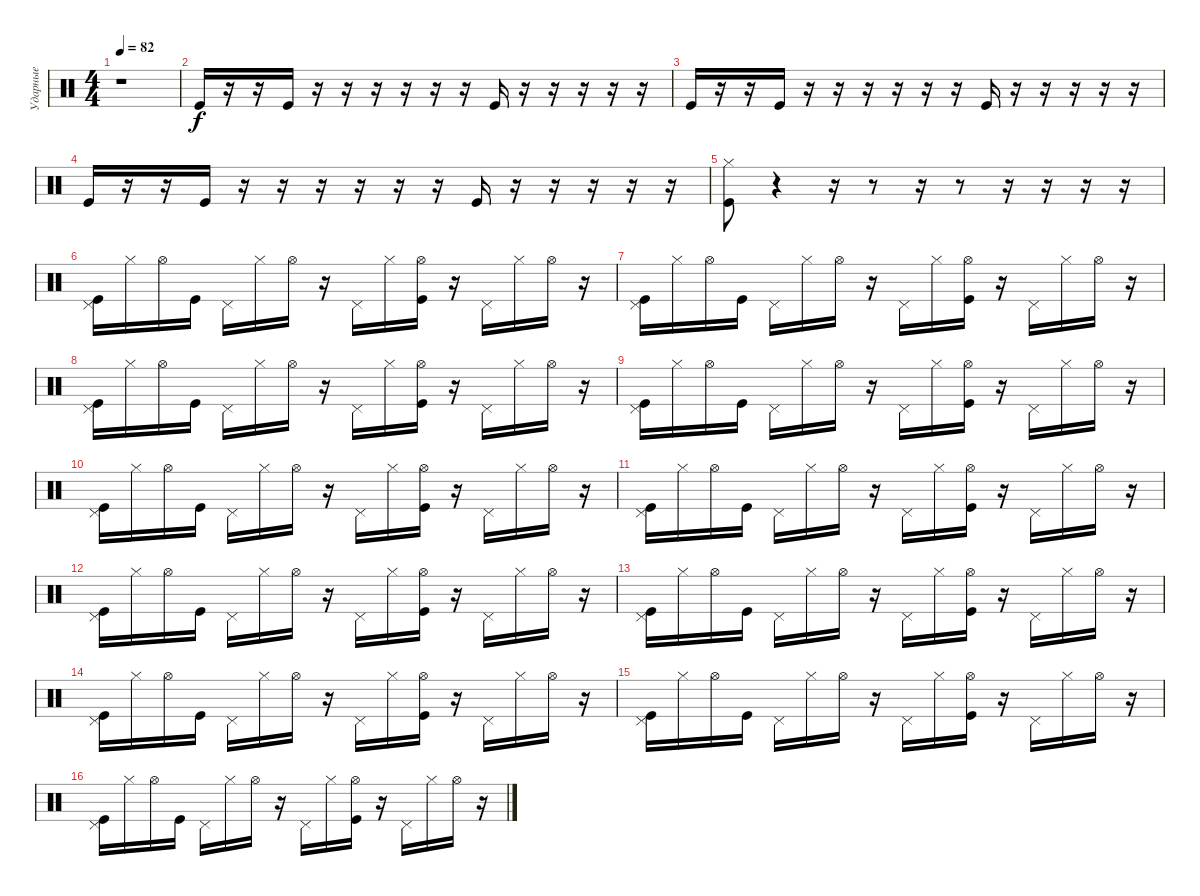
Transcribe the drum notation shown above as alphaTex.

\track ("Ударные" "Ударные") {instrument percussion}
\staff {score}
\articulation defaults
\ts (4 4)
\tempo 82
\clef neutral
\ks c
r.1{dy f} |
"Kick (hit)".16 r.16 r.16 "Kick (hit)".16 r.16 r.16 r.16 r.16 r.16 r.16 "Kick (hit)".16 r.16 r.16 r.16 r.16 r.16 |
"Kick (hit)".16 r.16 r.16 "Kick (hit)".16 r.16 r.16 r.16 r.16 r.16 r.16 "Kick (hit)".16 r.16 r.16 r.16 r.16 r.16 |
"Kick (hit)".16 r.16 r.16 "Kick (hit)".16 r.16 r.16 r.16 r.16 r.16 r.16 "Kick (hit)".16 r.16 r.16 r.16 r.16 r.16 |
("Hi-Hat (closed)" "Kick (hit)").8 r.4 r.16 r.8 r.16 r.8 r.16 r.16 r.16 r.16 |
("Kick (hit)" "Pedal Hi-Hat (hit)").16 "Hi-Hat (closed)".16 "Hi-Hat (open)".16 "Kick (hit)".16 "Pedal Hi-Hat (hit)".16 "Hi-Hat (closed)".16 "Hi-Hat (open)".16 r.16 "Pedal Hi-Hat (hit)".16 "Hi-Hat (closed)".16 ("Hi-Hat (open)" "Kick (hit)").16 r.16 "Pedal Hi-Hat (hit)".16 "Hi-Hat (closed)".16 "Hi-Hat (open)".16 r.16 |
("Kick (hit)" "Pedal Hi-Hat (hit)").16 "Hi-Hat (closed)".16 "Hi-Hat (open)".16 "Kick (hit)".16 "Pedal Hi-Hat (hit)".16 "Hi-Hat (closed)".16 "Hi-Hat (open)".16 r.16 "Pedal Hi-Hat (hit)".16 "Hi-Hat (closed)".16 ("Hi-Hat (open)" "Kick (hit)").16 r.16 "Pedal Hi-Hat (hit)".16 "Hi-Hat (closed)".16 "Hi-Hat (open)".16 r.16 |
("Kick (hit)" "Pedal Hi-Hat (hit)").16 "Hi-Hat (closed)".16 "Hi-Hat (open)".16 "Kick (hit)".16 "Pedal Hi-Hat (hit)".16 "Hi-Hat (closed)".16 "Hi-Hat (open)".16 r.16 "Pedal Hi-Hat (hit)".16 "Hi-Hat (closed)".16 ("Hi-Hat (open)" "Kick (hit)").16 r.16 "Pedal Hi-Hat (hit)".16 "Hi-Hat (closed)".16 "Hi-Hat (open)".16 r.16 |
("Kick (hit)" "Pedal Hi-Hat (hit)").16 "Hi-Hat (closed)".16 "Hi-Hat (open)".16 "Kick (hit)".16 "Pedal Hi-Hat (hit)".16 "Hi-Hat (closed)".16 "Hi-Hat (open)".16 r.16 "Pedal Hi-Hat (hit)".16 "Hi-Hat (closed)".16 ("Hi-Hat (open)" "Kick (hit)").16 r.16 "Pedal Hi-Hat (hit)".16 "Hi-Hat (closed)".16 "Hi-Hat (open)".16 r.16 |
("Kick (hit)" "Pedal Hi-Hat (hit)").16 "Hi-Hat (closed)".16 "Hi-Hat (open)".16 "Kick (hit)".16 "Pedal Hi-Hat (hit)".16 "Hi-Hat (closed)".16 "Hi-Hat (open)".16 r.16 "Pedal Hi-Hat (hit)".16 "Hi-Hat (closed)".16 ("Hi-Hat (open)" "Kick (hit)").16 r.16 "Pedal Hi-Hat (hit)".16 "Hi-Hat (closed)".16 "Hi-Hat (open)".16 r.16 |
("Kick (hit)" "Pedal Hi-Hat (hit)").16 "Hi-Hat (closed)".16 "Hi-Hat (open)".16 "Kick (hit)".16 "Pedal Hi-Hat (hit)".16 "Hi-Hat (closed)".16 "Hi-Hat (open)".16 r.16 "Pedal Hi-Hat (hit)".16 "Hi-Hat (closed)".16 ("Hi-Hat (open)" "Kick (hit)").16 r.16 "Pedal Hi-Hat (hit)".16 "Hi-Hat (closed)".16 "Hi-Hat (open)".16 r.16 |
("Kick (hit)" "Pedal Hi-Hat (hit)").16 "Hi-Hat (closed)".16 "Hi-Hat (open)".16 "Kick (hit)".16 "Pedal Hi-Hat (hit)".16 "Hi-Hat (closed)".16 "Hi-Hat (open)".16 r.16 "Pedal Hi-Hat (hit)".16 "Hi-Hat (closed)".16 ("Hi-Hat (open)" "Kick (hit)").16 r.16 "Pedal Hi-Hat (hit)".16 "Hi-Hat (closed)".16 "Hi-Hat (open)".16 r.16 |
("Kick (hit)" "Pedal Hi-Hat (hit)").16 "Hi-Hat (closed)".16 "Hi-Hat (open)".16 "Kick (hit)".16 "Pedal Hi-Hat (hit)".16 "Hi-Hat (closed)".16 "Hi-Hat (open)".16 r.16 "Pedal Hi-Hat (hit)".16 "Hi-Hat (closed)".16 ("Hi-Hat (open)" "Kick (hit)").16 r.16 "Pedal Hi-Hat (hit)".16 "Hi-Hat (closed)".16 "Hi-Hat (open)".16 r.16 |
("Kick (hit)" "Pedal Hi-Hat (hit)").16 "Hi-Hat (closed)".16 "Hi-Hat (open)".16 "Kick (hit)".16 "Pedal Hi-Hat (hit)".16 "Hi-Hat (closed)".16 "Hi-Hat (open)".16 r.16 "Pedal Hi-Hat (hit)".16 "Hi-Hat (closed)".16 ("Hi-Hat (open)" "Kick (hit)").16 r.16 "Pedal Hi-Hat (hit)".16 "Hi-Hat (closed)".16 "Hi-Hat (open)".16 r.16 |
("Kick (hit)" "Pedal Hi-Hat (hit)").16 "Hi-Hat (closed)".16 "Hi-Hat (open)".16 "Kick (hit)".16 "Pedal Hi-Hat (hit)".16 "Hi-Hat (closed)".16 "Hi-Hat (open)".16 r.16 "Pedal Hi-Hat (hit)".16 "Hi-Hat (closed)".16 ("Hi-Hat (open)" "Kick (hit)").16 r.16 "Pedal Hi-Hat (hit)".16 "Hi-Hat (closed)".16 "Hi-Hat (open)".16 r.16 |
("Kick (hit)" "Pedal Hi-Hat (hit)").16 "Hi-Hat (closed)".16 "Hi-Hat (open)".16 "Kick (hit)".16 "Pedal Hi-Hat (hit)".16 "Hi-Hat (closed)".16 "Hi-Hat (open)".16 r.16 "Pedal Hi-Hat (hit)".16 "Hi-Hat (closed)".16 ("Hi-Hat (open)" "Kick (hit)").16 r.16 "Pedal Hi-Hat (hit)".16 "Hi-Hat (closed)".16 "Hi-Hat (open)".16 r.16
